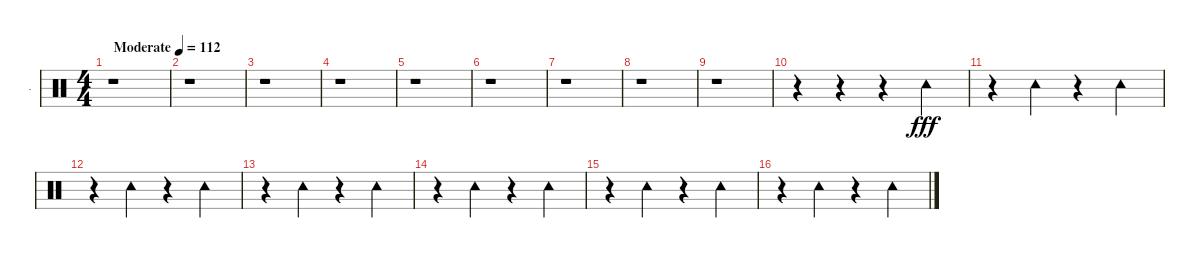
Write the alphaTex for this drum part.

\track ("." ".") {instrument percussion}
\staff {score}
\articulation defaults
\ts (4 4)
\tempo (112 "Moderate")
\clef neutral
\ks c
r.1{dy fff} |
r.1 |
r.1 |
r.1 |
r.1 |
r.1 |
r.1 |
r.1 |
r.1 |
r.4 r.4 r.4 "Tambourine (hit)".4 |
r.4 "Tambourine (hit)".4 r.4 "Tambourine (hit)".4 |
r.4 "Tambourine (hit)".4 r.4 "Tambourine (hit)".4 |
r.4 "Tambourine (hit)".4 r.4 "Tambourine (hit)".4 |
r.4 "Tambourine (hit)".4 r.4 "Tambourine (hit)".4 |
r.4 "Tambourine (hit)".4 r.4 "Tambourine (hit)".4 |
r.4 "Tambourine (hit)".4 r.4 "Tambourine (hit)".4
